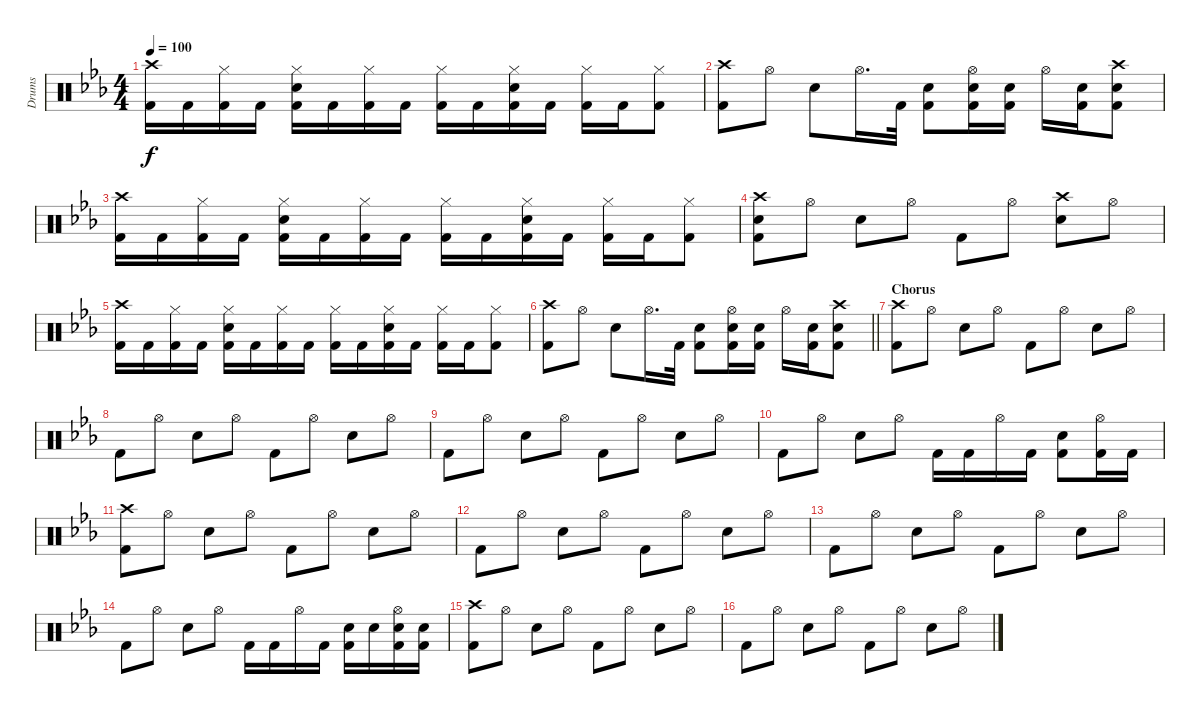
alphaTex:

\track ("Drums" "Drums") {instrument percussion}
\staff {score}
\articulation defaults
\ts (4 4)
\tempo 100
\clef neutral
\ks eb
("Kick (hit) 2" "Crash high (hit)").16{dy f} "Kick (hit) 2".16 ("Kick (hit) 2" "Hi-Hat (closed)").16 "Kick (hit) 2".16 ("Kick (hit) 2" "Hi-Hat (closed)" "Snare (hit) 2").16 "Kick (hit) 2".16 ("Kick (hit) 2" "Hi-Hat (closed)").16 "Kick (hit) 2".16 ("Kick (hit) 2" "Hi-Hat (closed)").16 "Kick (hit) 2".16 ("Kick (hit) 2" "Hi-Hat (closed)" "Snare (hit) 2").16 "Kick (hit) 2".16 ("Kick (hit) 2" "Hi-Hat (closed)").16 "Kick (hit) 2".16 ("Kick (hit) 2" "Hi-Hat (closed)").8 |
("Kick (hit) 2" "Crash high (hit)").8 "Hi-Hat (open)".8 "Snare (hit) 2".8 "Hi-Hat (open)".16{d} "Kick (hit) 2".32 ("Kick (hit) 2" "Snare (hit) 2").8 ("Kick (hit) 2" "Snare (hit) 2" "Hi-Hat (open)").16 ("Kick (hit) 2" "Snare (hit) 2").16 "Hi-Hat (open)".16 ("Kick (hit) 2" "Snare (hit) 2").16 ("Kick (hit) 2" "Snare (hit) 2" "Crash high (hit)").8 |
("Kick (hit) 2" "Crash high (hit)").16 "Kick (hit) 2".16 ("Kick (hit) 2" "Hi-Hat (closed)").16 "Kick (hit) 2".16 ("Kick (hit) 2" "Hi-Hat (closed)" "Snare (hit) 2").16 "Kick (hit) 2".16 ("Kick (hit) 2" "Hi-Hat (closed)").16 "Kick (hit) 2".16 ("Kick (hit) 2" "Hi-Hat (closed)").16 "Kick (hit) 2".16 ("Kick (hit) 2" "Hi-Hat (closed)" "Snare (hit) 2").16 "Kick (hit) 2".16 ("Kick (hit) 2" "Hi-Hat (closed)").16 "Kick (hit) 2".16 ("Kick (hit) 2" "Hi-Hat (closed)").8 |
("Kick (hit) 2" "Snare (hit) 2" "Crash high (hit)").8 "Hi-Hat (open)".8 "Snare (hit) 2".8 "Hi-Hat (open)".8 "Kick (hit) 2".8 "Hi-Hat (open)".8 ("Snare (hit) 2" "Crash high (hit)").8 "Hi-Hat (open)".8 |
("Kick (hit) 2" "Crash high (hit)").16 "Kick (hit) 2".16 ("Kick (hit) 2" "Hi-Hat (closed)").16 "Kick (hit) 2".16 ("Kick (hit) 2" "Hi-Hat (closed)" "Snare (hit) 2").16 "Kick (hit) 2".16 ("Kick (hit) 2" "Hi-Hat (closed)").16 "Kick (hit) 2".16 ("Kick (hit) 2" "Hi-Hat (closed)").16 "Kick (hit) 2".16 ("Kick (hit) 2" "Hi-Hat (closed)" "Snare (hit) 2").16 "Kick (hit) 2".16 ("Kick (hit) 2" "Hi-Hat (closed)").16 "Kick (hit) 2".16 ("Kick (hit) 2" "Hi-Hat (closed)").8 |
\barLineRight lightlight
("Kick (hit) 2" "Crash high (hit)").8 "Hi-Hat (open)".8 "Snare (hit) 2".8 "Hi-Hat (open)".16{d} "Kick (hit) 2".32 ("Kick (hit) 2" "Snare (hit) 2").8 ("Kick (hit) 2" "Snare (hit) 2" "Hi-Hat (open)").16 ("Kick (hit) 2" "Snare (hit) 2").16 "Hi-Hat (open)".16 ("Kick (hit) 2" "Snare (hit) 2").16 ("Kick (hit) 2" "Snare (hit) 2" "Crash high (hit)").8 |
\section ("" "Chorus")
("Kick (hit) 2" "Crash high (hit)").8 "Hi-Hat (open)".8 "Snare (hit) 2".8 "Hi-Hat (open)".8 "Kick (hit) 2".8 "Hi-Hat (open)".8 "Snare (hit) 2".8 "Hi-Hat (open)".8 |
"Kick (hit) 2".8 "Hi-Hat (open)".8 "Snare (hit) 2".8 "Hi-Hat (open)".8 "Kick (hit) 2".8 "Hi-Hat (open)".8 "Snare (hit) 2".8 "Hi-Hat (open)".8 |
"Kick (hit) 2".8 "Hi-Hat (open)".8 "Snare (hit) 2".8 "Hi-Hat (open)".8 "Kick (hit) 2".8 "Hi-Hat (open)".8 "Snare (hit) 2".8 "Hi-Hat (open)".8 |
"Kick (hit) 2".8 "Hi-Hat (open)".8 "Snare (hit) 2".8 "Hi-Hat (open)".8 "Kick (hit) 2".16 "Kick (hit) 2".16 "Hi-Hat (open)".16 "Kick (hit) 2".16 ("Kick (hit) 2" "Snare (hit) 2").8 ("Kick (hit) 2" "Hi-Hat (open)").16 "Kick (hit) 2".16 |
("Kick (hit) 2" "Crash high (hit)").8 "Hi-Hat (open)".8 "Snare (hit) 2".8 "Hi-Hat (open)".8 "Kick (hit) 2".8 "Hi-Hat (open)".8 "Snare (hit) 2".8 "Hi-Hat (open)".8 |
"Kick (hit) 2".8 "Hi-Hat (open)".8 "Snare (hit) 2".8 "Hi-Hat (open)".8 "Kick (hit) 2".8 "Hi-Hat (open)".8 "Snare (hit) 2".8 "Hi-Hat (open)".8 |
"Kick (hit) 2".8 "Hi-Hat (open)".8 "Snare (hit) 2".8 "Hi-Hat (open)".8 "Kick (hit) 2".8 "Hi-Hat (open)".8 "Snare (hit) 2".8 "Hi-Hat (open)".8 |
"Kick (hit) 2".8 "Hi-Hat (open)".8 "Snare (hit) 2".8 "Hi-Hat (open)".8 "Kick (hit) 2".16 "Kick (hit) 2".16 "Hi-Hat (open)".16 "Kick (hit) 2".16 ("Kick (hit) 2" "Snare (hit) 2").16 "Snare (hit) 2".16 ("Snare (hit) 2" "Kick (hit) 2" "Hi-Hat (open)").16 ("Snare (hit) 2" "Kick (hit) 2").16 |
("Kick (hit) 2" "Crash high (hit)").8 "Hi-Hat (open)".8 "Snare (hit) 2".8 "Hi-Hat (open)".8 "Kick (hit) 2".8 "Hi-Hat (open)".8 "Snare (hit) 2".8 "Hi-Hat (open)".8 |
"Kick (hit) 2".8 "Hi-Hat (open)".8 "Snare (hit) 2".8 "Hi-Hat (open)".8 "Kick (hit) 2".8 "Hi-Hat (open)".8 "Snare (hit) 2".8 "Hi-Hat (open)".8
